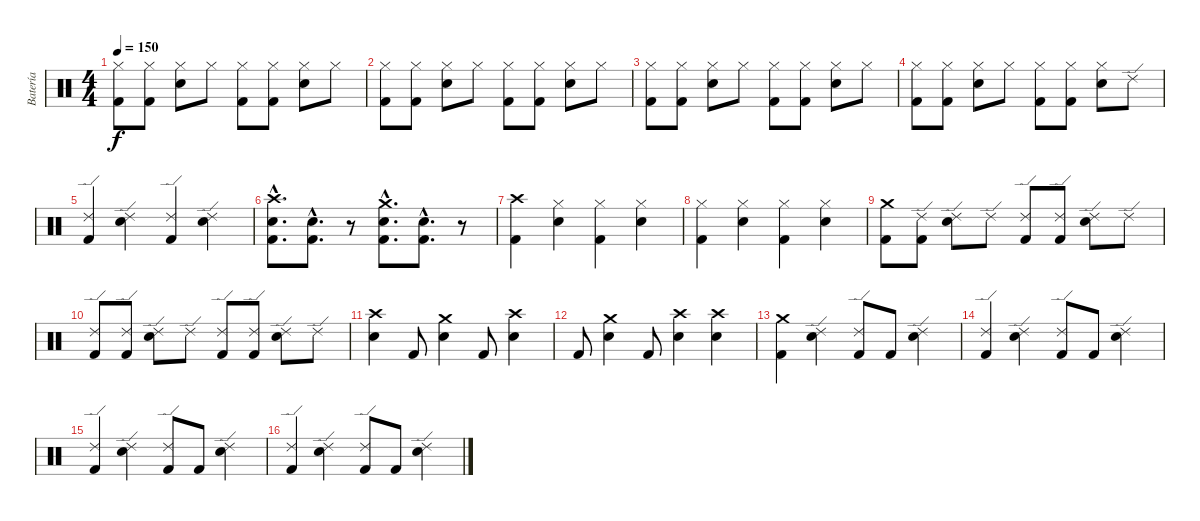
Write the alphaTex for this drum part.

\track ("Batería" "Batería") {instrument percussion}
\staff {score}
\articulation defaults
\ts (4 4)
\tempo 150
\clef neutral
\ks c
("Hi-Hat (closed)" "Kick (hit) 2").8{dy f} ("Hi-Hat (closed)" "Kick (hit) 2").8 ("Hi-Hat (closed)" "Electric Snare (hit)").8 "Hi-Hat (closed)".8 ("Hi-Hat (closed)" "Kick (hit) 2").8 ("Hi-Hat (closed)" "Kick (hit) 2").8 ("Hi-Hat (closed)" "Electric Snare (hit)").8 "Hi-Hat (closed)".8 |
("Hi-Hat (closed)" "Kick (hit) 2").8 ("Hi-Hat (closed)" "Kick (hit) 2").8 ("Hi-Hat (closed)" "Electric Snare (hit)").8 "Hi-Hat (closed)".8 ("Hi-Hat (closed)" "Kick (hit) 2").8 ("Hi-Hat (closed)" "Kick (hit) 2").8 ("Hi-Hat (closed)" "Electric Snare (hit)").8 "Hi-Hat (closed)".8 |
("Hi-Hat (closed)" "Kick (hit) 2").8 ("Hi-Hat (closed)" "Kick (hit) 2").8 ("Hi-Hat (closed)" "Electric Snare (hit)").8 "Hi-Hat (closed)".8 ("Hi-Hat (closed)" "Kick (hit) 2").8 ("Hi-Hat (closed)" "Kick (hit) 2").8 ("Hi-Hat (closed)" "Electric Snare (hit)").8 "Hi-Hat (closed)".8 |
("Hi-Hat (closed)" "Kick (hit) 2").8 ("Hi-Hat (closed)" "Kick (hit) 2").8 ("Hi-Hat (closed)" "Electric Snare (hit)").8 "Hi-Hat (closed)".8 ("Hi-Hat (closed)" "Kick (hit) 2").8 ("Hi-Hat (closed)" "Kick (hit) 2").8 ("Hi-Hat (closed)" "Electric Snare (hit)").8 "Ride (edge) 2".8 |
("Ride (edge) 2" "Kick (hit) 2").4 ("Ride (edge) 2" "Electric Snare (hit)").4 ("Ride (edge) 2" "Kick (hit) 2").4 ("Ride (edge) 2" "Electric Snare (hit)").4 |
("Crash high (hit)"{hac} "Electric Snare (hit)"{hac} "Kick (hit) 2"{hac}).8{d} ("Electric Snare (hit)"{hac} "Kick (hit) 2"{hac}).8{d} r.8 ("Crash medium (hit)"{hac} "Electric Snare (hit)"{hac} "Kick (hit) 2"{hac}).8{d} ("Electric Snare (hit)"{hac} "Kick (hit) 2"{hac}).8{d} r.8 |
("Crash high (hit)" "Kick (hit) 2").4 ("Hi-Hat (closed)" "Electric Snare (hit)").4 ("Hi-Hat (closed)" "Kick (hit) 2").4 ("Hi-Hat (closed)" "Electric Snare (hit)").4 |
("Hi-Hat (closed)" "Kick (hit) 2").4 ("Hi-Hat (closed)" "Electric Snare (hit)").4 ("Hi-Hat (closed)" "Kick (hit) 2").4 ("Hi-Hat (closed)" "Electric Snare (hit)").4 |
("Crash medium (hit)" "Kick (hit) 2").8 ("Ride (edge) 2" "Kick (hit) 2").8 ("Ride (edge) 2" "Electric Snare (hit)").8 "Ride (edge) 2".8 ("Ride (edge) 2" "Kick (hit) 2").8 ("Ride (edge) 2" "Kick (hit) 2").8 ("Ride (edge) 2" "Electric Snare (hit)").8 "Ride (edge) 2".8 |
("Ride (edge) 2" "Kick (hit) 2").8 ("Ride (edge) 2" "Kick (hit) 2").8 ("Ride (edge) 2" "Electric Snare (hit)").8 "Ride (edge) 2".8 ("Ride (edge) 2" "Kick (hit) 2").8 ("Ride (edge) 2" "Kick (hit) 2").8 ("Ride (edge) 2" "Electric Snare (hit)").8 "Ride (edge) 2".8 |
("Crash high (hit)" "Electric Snare (hit)").4 "Kick (hit) 2".8 ("Crash medium (hit)" "Electric Snare (hit)").4 "Kick (hit) 2".8 ("Crash high (hit)" "Electric Snare (hit)").4 |
"Kick (hit) 2".8 ("Crash medium (hit)" "Electric Snare (hit)").4 "Kick (hit) 2".8 ("Crash high (hit)" "Electric Snare (hit)").4 ("Crash high (hit)" "Electric Snare (hit)").4 |
("Crash medium (hit)" "Kick (hit) 2").4 ("Ride (edge) 2" "Electric Snare (hit)").4 ("Ride (edge) 2" "Kick (hit) 2").8 "Kick (hit) 2".8 ("Ride (edge) 2" "Electric Snare (hit)").4 |
("Ride (edge) 2" "Kick (hit) 2").4 ("Ride (edge) 2" "Electric Snare (hit)").4 ("Ride (edge) 2" "Kick (hit) 2").8 "Kick (hit) 2".8 ("Ride (edge) 2" "Electric Snare (hit)").4 |
("Ride (edge) 2" "Kick (hit) 2").4 ("Ride (edge) 2" "Electric Snare (hit)").4 ("Ride (edge) 2" "Kick (hit) 2").8 "Kick (hit) 2".8 ("Ride (edge) 2" "Electric Snare (hit)").4 |
("Ride (edge) 2" "Kick (hit) 2").4 ("Ride (edge) 2" "Electric Snare (hit)").4 ("Ride (edge) 2" "Kick (hit) 2").8 "Kick (hit) 2".8 ("Ride (edge) 2" "Electric Snare (hit)").4
